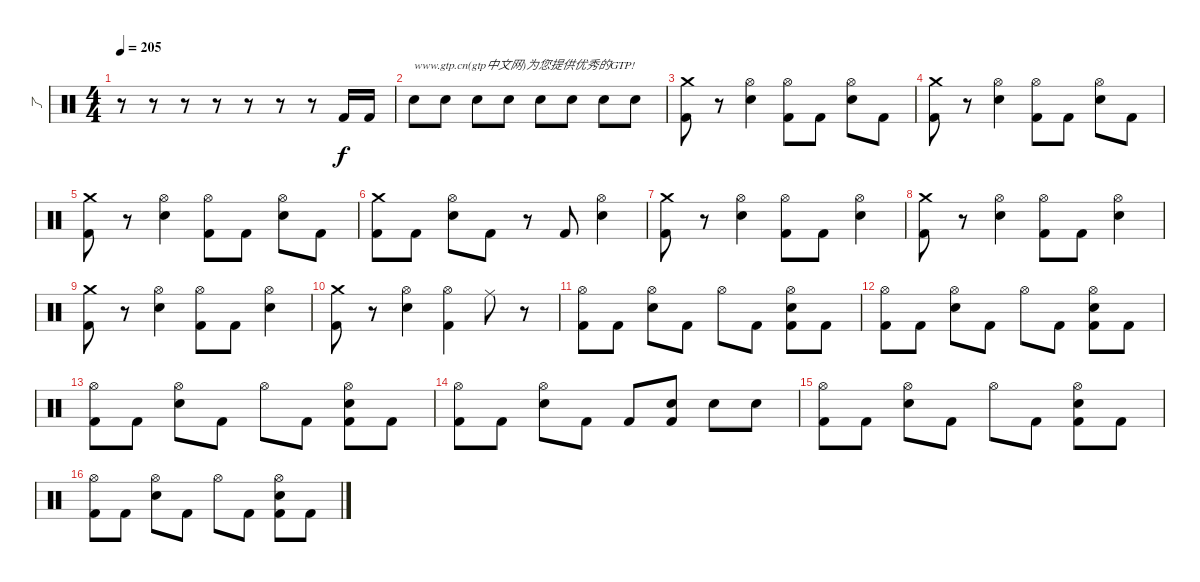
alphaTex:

\track ("了" "了") {instrument percussion}
\staff {score}
\articulation defaults
\ts (4 4)
\tempo 205
\clef neutral
\ks c
r.8{dy f} r.8 r.8 r.8 r.8 r.8 r.8 "Kick (hit) 2".16 "Kick (hit) 2".16 |
"Snare (hit) 2".8{txt "www.gtp.cn(gtp中文网)为您提供优秀的GTP!"} "Snare (hit) 2".8 "Snare (hit) 2".8 "Snare (hit) 2".8 "Snare (hit) 2".8 "Snare (hit) 2".8 "Snare (hit) 2".8 "Snare (hit) 2".8 |
("Kick (hit) 2" "Crash medium (hit)").8 r.8 ("Hi-Hat (open)" "Electric Snare (hit)").4 ("Hi-Hat (open)" "Kick (hit) 2").8 "Kick (hit) 2".8 ("Hi-Hat (open)" "Electric Snare (hit)").8 "Kick (hit) 2".8 |
("Kick (hit) 2" "Crash medium (hit)").8 r.8 ("Hi-Hat (open)" "Electric Snare (hit)").4 ("Hi-Hat (open)" "Kick (hit) 2").8 "Kick (hit) 2".8 ("Hi-Hat (open)" "Electric Snare (hit)").8 "Kick (hit) 2".8 |
("Kick (hit) 2" "Crash medium (hit)").8 r.8 ("Hi-Hat (open)" "Electric Snare (hit)").4 ("Hi-Hat (open)" "Kick (hit) 2").8 "Kick (hit) 2".8 ("Hi-Hat (open)" "Electric Snare (hit)").8 "Kick (hit) 2".8 |
("Kick (hit) 2" "Crash medium (hit)").8 "Kick (hit) 2".8 ("Hi-Hat (open)" "Electric Snare (hit)").8 "Kick (hit) 2".8 r.8 "Kick (hit) 2".8 ("Hi-Hat (open)" "Electric Snare (hit)").4 |
("Kick (hit) 2" "Crash medium (hit)").8 r.8 ("Hi-Hat (open)" "Electric Snare (hit)").4 ("Hi-Hat (open)" "Kick (hit) 2").8 "Kick (hit) 2".8 ("Hi-Hat (open)" "Electric Snare (hit)").4 |
("Kick (hit) 2" "Crash medium (hit)").8 r.8 ("Hi-Hat (open)" "Electric Snare (hit)").4 ("Hi-Hat (open)" "Kick (hit) 2").8 "Kick (hit) 2".8 ("Hi-Hat (open)" "Electric Snare (hit)").4 |
("Kick (hit) 2" "Crash medium (hit)").8 r.8 ("Hi-Hat (open)" "Electric Snare (hit)").4 ("Hi-Hat (open)" "Kick (hit) 2").8 "Kick (hit) 2".8 ("Hi-Hat (open)" "Electric Snare (hit)").4 |
("Kick (hit) 2" "Crash medium (hit)").8 r.8 ("Hi-Hat (open)" "Electric Snare (hit)").4 ("Hi-Hat (open)" "Kick (hit) 2").4 "Ride (middle)".8 r.8 |
("Hi-Hat (open)" "Kick (hit) 2").8 "Kick (hit) 2".8 ("Hi-Hat (open)" "Snare (hit) 2").8 "Kick (hit) 2".8 "Hi-Hat (open)".8 "Kick (hit) 2".8 ("Hi-Hat (open)" "Kick (hit) 2" "Snare (hit) 2").8 "Kick (hit) 2".8 |
("Hi-Hat (open)" "Kick (hit) 2").8 "Kick (hit) 2".8 ("Hi-Hat (open)" "Snare (hit) 2").8 "Kick (hit) 2".8 "Hi-Hat (open)".8 "Kick (hit) 2".8 ("Hi-Hat (open)" "Kick (hit) 2" "Snare (hit) 2").8 "Kick (hit) 2".8 |
("Hi-Hat (open)" "Kick (hit) 2").8 "Kick (hit) 2".8 ("Hi-Hat (open)" "Snare (hit) 2").8 "Kick (hit) 2".8 "Hi-Hat (open)".8 "Kick (hit) 2".8 ("Hi-Hat (open)" "Kick (hit) 2" "Snare (hit) 2").8 "Kick (hit) 2".8 |
("Hi-Hat (open)" "Kick (hit) 2").8 "Kick (hit) 2".8 ("Hi-Hat (open)" "Snare (hit) 2").8 "Kick (hit) 2".8 "Kick (hit) 2".8 ("Snare (hit) 2" "Kick (hit) 2").8 "Snare (hit) 2".8 "Snare (hit) 2".8 |
("Hi-Hat (open)" "Kick (hit) 2").8 "Kick (hit) 2".8 ("Hi-Hat (open)" "Snare (hit) 2").8 "Kick (hit) 2".8 "Hi-Hat (open)".8 "Kick (hit) 2".8 ("Hi-Hat (open)" "Kick (hit) 2" "Snare (hit) 2").8 "Kick (hit) 2".8 |
("Hi-Hat (open)" "Kick (hit) 2").8 "Kick (hit) 2".8 ("Hi-Hat (open)" "Snare (hit) 2").8 "Kick (hit) 2".8 "Hi-Hat (open)".8 "Kick (hit) 2".8 ("Hi-Hat (open)" "Kick (hit) 2" "Snare (hit) 2").8 "Kick (hit) 2".8
